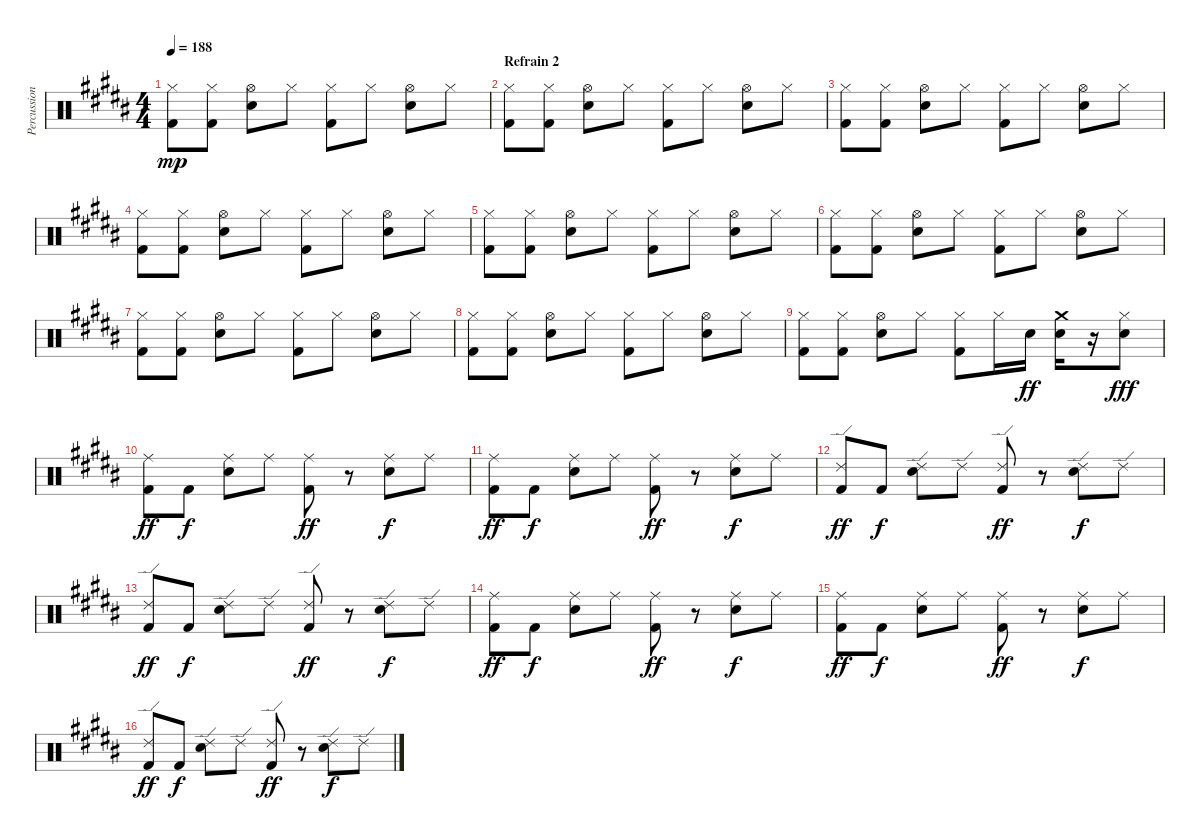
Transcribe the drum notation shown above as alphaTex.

\track ("Percussions" "Percussion") {instrument percussion}
\staff {score}
\articulation defaults
\ts (4 4)
\tempo 188
\clef neutral
\ks b
("Hi-Hat (closed)" "Kick (hit) 2").8{dy mp} ("Hi-Hat (closed)" "Kick (hit) 2").8 ("Hi-Hat (open)" "Snare (hit) 2").8 "Hi-Hat (closed)".8 ("Hi-Hat (closed)" "Kick (hit) 2").8 "Hi-Hat (closed)".8 ("Hi-Hat (open)" "Snare (hit) 2").8 "Hi-Hat (closed)".8 |
\section ("" "Refrain 2")
("Hi-Hat (closed)" "Kick (hit) 2").8 ("Hi-Hat (closed)" "Kick (hit) 2").8 ("Hi-Hat (open)" "Snare (hit) 2").8 "Hi-Hat (closed)".8 ("Hi-Hat (closed)" "Kick (hit) 2").8 "Hi-Hat (closed)".8 ("Hi-Hat (open)" "Snare (hit) 2").8 "Hi-Hat (closed)".8 |
("Hi-Hat (closed)" "Kick (hit) 2").8 ("Hi-Hat (closed)" "Kick (hit) 2").8 ("Hi-Hat (open)" "Snare (hit) 2").8 "Hi-Hat (closed)".8 ("Hi-Hat (closed)" "Kick (hit) 2").8 "Hi-Hat (closed)".8 ("Hi-Hat (open)" "Snare (hit) 2").8 "Hi-Hat (closed)".8 |
("Hi-Hat (closed)" "Kick (hit) 2").8 ("Hi-Hat (closed)" "Kick (hit) 2").8 ("Hi-Hat (open)" "Snare (hit) 2").8 "Hi-Hat (closed)".8 ("Hi-Hat (closed)" "Kick (hit) 2").8 "Hi-Hat (closed)".8 ("Hi-Hat (open)" "Snare (hit) 2").8 "Hi-Hat (closed)".8 |
("Hi-Hat (closed)" "Kick (hit) 2").8 ("Hi-Hat (closed)" "Kick (hit) 2").8 ("Hi-Hat (open)" "Snare (hit) 2").8 "Hi-Hat (closed)".8 ("Hi-Hat (closed)" "Kick (hit) 2").8 "Hi-Hat (closed)".8 ("Hi-Hat (open)" "Snare (hit) 2").8 "Hi-Hat (closed)".8 |
("Hi-Hat (closed)" "Kick (hit) 2").8 ("Hi-Hat (closed)" "Kick (hit) 2").8 ("Hi-Hat (open)" "Snare (hit) 2").8 "Hi-Hat (closed)".8 ("Hi-Hat (closed)" "Kick (hit) 2").8 "Hi-Hat (closed)".8 ("Hi-Hat (open)" "Snare (hit) 2").8 "Hi-Hat (closed)".8 |
("Hi-Hat (closed)" "Kick (hit) 2").8 ("Hi-Hat (closed)" "Kick (hit) 2").8 ("Hi-Hat (open)" "Snare (hit) 2").8 "Hi-Hat (closed)".8 ("Hi-Hat (closed)" "Kick (hit) 2").8 "Hi-Hat (closed)".8 ("Hi-Hat (open)" "Snare (hit) 2").8 "Hi-Hat (closed)".8 |
("Hi-Hat (closed)" "Kick (hit) 2").8 ("Hi-Hat (closed)" "Kick (hit) 2").8 ("Hi-Hat (open)" "Snare (hit) 2").8 "Hi-Hat (closed)".8 ("Hi-Hat (closed)" "Kick (hit) 2").8 "Hi-Hat (closed)".8 ("Hi-Hat (open)" "Snare (hit) 2").8 "Hi-Hat (closed)".8 |
("Hi-Hat (closed)" "Kick (hit) 2").8 ("Hi-Hat (closed)" "Kick (hit) 2").8 ("Hi-Hat (open)" "Snare (hit) 2").8 "Hi-Hat (closed)".8 ("Hi-Hat (closed)" "Kick (hit) 2").8 "Hi-Hat (closed)".16 "Snare (hit) 2".16{dy ff} ("Crash medium (hit)" "Snare (hit) 2").16 r.16 ("Hi-Hat (closed)" "Snare (hit) 2").8{dy fff} |
("Ride (middle)" "Kick (hit) 2").8{dy ff} "Kick (hit) 2".8{dy f} ("Ride (middle)" "Snare (hit) 2").8 "Ride (middle)".8 ("Ride (middle)" "Kick (hit) 2").8{dy ff} r.8 ("Ride (middle)" "Snare (hit) 2").8{dy f} "Ride (middle)".8 |
("Ride (middle)" "Kick (hit) 2").8{dy ff} "Kick (hit) 2".8{dy f} ("Ride (middle)" "Snare (hit) 2").8 "Ride (middle)".8 ("Ride (middle)" "Kick (hit) 2").8{dy ff} r.8 ("Ride (middle)" "Snare (hit) 2").8{dy f} "Ride (middle)".8 |
("Ride (edge) 2" "Kick (hit) 2").8{dy ff} "Kick (hit) 2".8{dy f} ("Ride (edge) 2" "Snare (hit) 2").8 "Ride (edge) 2".8 ("Ride (edge) 2" "Kick (hit) 2").8{dy ff} r.8 ("Ride (edge) 2" "Snare (hit) 2").8{dy f} "Ride (edge) 2".8 |
("Ride (edge) 2" "Kick (hit) 2").8{dy ff} "Kick (hit) 2".8{dy f} ("Ride (edge) 2" "Snare (hit) 2").8 "Ride (edge) 2".8 ("Ride (edge) 2" "Kick (hit) 2").8{dy ff} r.8 ("Ride (edge) 2" "Snare (hit) 2").8{dy f} "Ride (edge) 2".8 |
("Ride (middle)" "Kick (hit) 2").8{dy ff} "Kick (hit) 2".8{dy f} ("Ride (middle)" "Snare (hit) 2").8 "Ride (middle)".8 ("Ride (middle)" "Kick (hit) 2").8{dy ff} r.8 ("Ride (middle)" "Snare (hit) 2").8{dy f} "Ride (middle)".8 |
("Ride (middle)" "Kick (hit) 2").8{dy ff} "Kick (hit) 2".8{dy f} ("Ride (middle)" "Snare (hit) 2").8 "Ride (middle)".8 ("Ride (middle)" "Kick (hit) 2").8{dy ff} r.8 ("Ride (middle)" "Snare (hit) 2").8{dy f} "Ride (middle)".8 |
("Ride (edge) 2" "Kick (hit) 2").8{dy ff} "Kick (hit) 2".8{dy f} ("Ride (edge) 2" "Snare (hit) 2").8 "Ride (edge) 2".8 ("Ride (edge) 2" "Kick (hit) 2").8{dy ff} r.8 ("Ride (edge) 2" "Snare (hit) 2").8{dy f} "Ride (edge) 2".8
